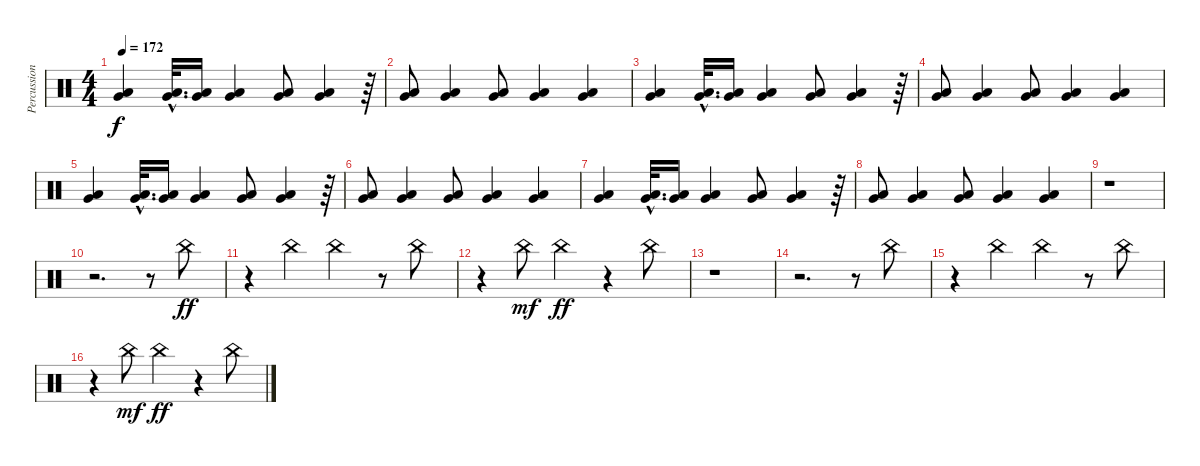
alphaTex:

\track ("Percussion / Drum Fills" "Percussion") {instrument percussion}
\staff {score}
\articulation defaults
\ts (4 4)
\tempo 172
\clef neutral
\ks c
("Very Low Tom (hit)" "Low Floor Tom (hit)").4{dy f} ("Very Low Tom (hit)"{hac} "Low Floor Tom (hit)"{hac}).32{d} ("Very Low Tom (hit)" "Low Floor Tom (hit)").16 ("Very Low Tom (hit)" "Low Floor Tom (hit)").4 ("Very Low Tom (hit)" "Low Floor Tom (hit)").8 ("Very Low Tom (hit)" "Low Floor Tom (hit)").4 r.64 |
("Very Low Tom (hit)" "Low Floor Tom (hit)").8 ("Very Low Tom (hit)" "Low Floor Tom (hit)").4 ("Very Low Tom (hit)" "Low Floor Tom (hit)").8 ("Very Low Tom (hit)" "Low Floor Tom (hit)").4 ("Very Low Tom (hit)" "Low Floor Tom (hit)").4 |
("Very Low Tom (hit)" "Low Floor Tom (hit)").4 ("Very Low Tom (hit)"{hac} "Low Floor Tom (hit)"{hac}).32{d} ("Very Low Tom (hit)" "Low Floor Tom (hit)").16 ("Very Low Tom (hit)" "Low Floor Tom (hit)").4 ("Very Low Tom (hit)" "Low Floor Tom (hit)").8 ("Very Low Tom (hit)" "Low Floor Tom (hit)").4 r.64 |
("Very Low Tom (hit)" "Low Floor Tom (hit)").8 ("Very Low Tom (hit)" "Low Floor Tom (hit)").4 ("Very Low Tom (hit)" "Low Floor Tom (hit)").8 ("Very Low Tom (hit)" "Low Floor Tom (hit)").4 ("Very Low Tom (hit)" "Low Floor Tom (hit)").4 |
("Very Low Tom (hit)" "Low Floor Tom (hit)").4 ("Very Low Tom (hit)"{hac} "Low Floor Tom (hit)"{hac}).32{d} ("Very Low Tom (hit)" "Low Floor Tom (hit)").16 ("Very Low Tom (hit)" "Low Floor Tom (hit)").4 ("Very Low Tom (hit)" "Low Floor Tom (hit)").8 ("Very Low Tom (hit)" "Low Floor Tom (hit)").4 r.64 |
("Very Low Tom (hit)" "Low Floor Tom (hit)").8 ("Very Low Tom (hit)" "Low Floor Tom (hit)").4 ("Very Low Tom (hit)" "Low Floor Tom (hit)").8 ("Very Low Tom (hit)" "Low Floor Tom (hit)").4 ("Very Low Tom (hit)" "Low Floor Tom (hit)").4 |
("Very Low Tom (hit)" "Low Floor Tom (hit)").4 ("Very Low Tom (hit)"{hac} "Low Floor Tom (hit)"{hac}).32{d} ("Very Low Tom (hit)" "Low Floor Tom (hit)").16 ("Very Low Tom (hit)" "Low Floor Tom (hit)").4 ("Very Low Tom (hit)" "Low Floor Tom (hit)").8 ("Very Low Tom (hit)" "Low Floor Tom (hit)").4 r.64 |
("Very Low Tom (hit)" "Low Floor Tom (hit)").8 ("Very Low Tom (hit)" "Low Floor Tom (hit)").4 ("Very Low Tom (hit)" "Low Floor Tom (hit)").8 ("Very Low Tom (hit)" "Low Floor Tom (hit)").4 ("Very Low Tom (hit)" "Low Floor Tom (hit)").4 |
r.1 |
r.2{d} r.8 "China (hit)".8{dy ff} |
r.4 "China (hit)".4 "China (hit)".4 r.8 "China (hit)".8 |
r.4 "China (hit)".8{dy mf} "China (hit)".4{dy ff} r.4 "China (hit)".8 |
r.1 |
r.2{d} r.8 "China (hit)".8 |
r.4 "China (hit)".4 "China (hit)".4 r.8 "China (hit)".8 |
r.4 "China (hit)".8{dy mf} "China (hit)".4{dy ff} r.4 "China (hit)".8
